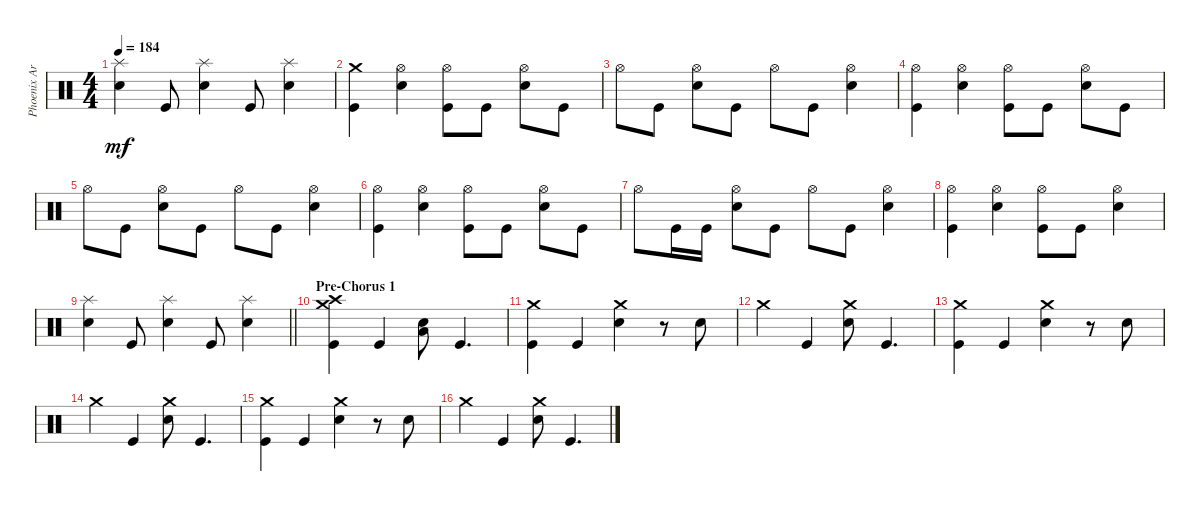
\track ("Phoenix Arn-Horn (Drums)" "Phoenix Ar") {instrument percussion}
\staff {score}
\articulation defaults
\ts (4 4)
\tempo 184
\clef neutral
\ks c
("Snare (hit) 2" "Splash (hit)").4{dy mf} "Kick (hit)".8 ("Snare (hit) 2" "Splash (hit)").4 "Kick (hit)".8 ("Snare (hit) 2" "Splash (hit)").4 |
("Kick (hit)" "Crash medium (hit)").4 ("Snare (hit) 2" "Hi-Hat (open)").4 ("Kick (hit)" "Hi-Hat (open)").8 "Kick (hit)".8 ("Snare (hit) 2" "Hi-Hat (open)").8 "Kick (hit)".8 |
"Hi-Hat (open)".8 "Kick (hit)".8 ("Snare (hit) 2" "Hi-Hat (open)").8 "Kick (hit)".8 "Hi-Hat (open)".8 "Kick (hit)".8 ("Snare (hit) 2" "Hi-Hat (open)").4 |
("Kick (hit)" "Hi-Hat (open)").4 ("Snare (hit) 2" "Hi-Hat (open)").4 ("Kick (hit)" "Hi-Hat (open)").8 "Kick (hit)".8 ("Snare (hit) 2" "Hi-Hat (open)").8 "Kick (hit)".8 |
"Hi-Hat (open)".8 "Kick (hit)".8 ("Snare (hit) 2" "Hi-Hat (open)").8 "Kick (hit)".8 "Hi-Hat (open)".8 "Kick (hit)".8 ("Snare (hit) 2" "Hi-Hat (open)").4 |
("Kick (hit)" "Hi-Hat (open)").4 ("Snare (hit) 2" "Hi-Hat (open)").4 ("Kick (hit)" "Hi-Hat (open)").8 "Kick (hit)".8 ("Snare (hit) 2" "Hi-Hat (open)").8 "Kick (hit)".8 |
"Hi-Hat (open)".8 "Kick (hit)".16 "Kick (hit)".16 ("Snare (hit) 2" "Hi-Hat (open)").8 "Kick (hit)".8 "Hi-Hat (open)".8 "Kick (hit)".8 ("Snare (hit) 2" "Hi-Hat (open)").4 |
("Kick (hit)" "Hi-Hat (open)").4 ("Snare (hit) 2" "Hi-Hat (open)").4 ("Kick (hit)" "Hi-Hat (open)").8 "Kick (hit)".8 ("Snare (hit) 2" "Hi-Hat (open)").4 |
\barLineRight lightlight
("Snare (hit) 2" "Splash (hit)").4 "Kick (hit)".8 ("Snare (hit) 2" "Splash (hit)").4 "Kick (hit)".8 ("Snare (hit) 2" "Splash (hit)").4 |
\section ("" "Pre-Chorus 1")
("Kick (hit)" "Crash medium (hit)" "Crash high (hit)").4 "Kick (hit)".4 ("Snare (hit) 2" "Low Floor Tom (hit)").8 "Kick (hit)".4{d} |
("Kick (hit)" "Crash medium (hit)").4 "Kick (hit)".4 ("Snare (hit) 2" "Crash medium (hit)").4 r.8 "Snare (hit) 2".8 |
"Crash medium (hit)".4 "Kick (hit)".4 ("Snare (hit) 2" "Crash medium (hit)").8 "Kick (hit)".4{d} |
("Kick (hit)" "Crash medium (hit)").4 "Kick (hit)".4 ("Snare (hit) 2" "Crash medium (hit)").4 r.8 "Snare (hit) 2".8 |
"Crash medium (hit)".4 "Kick (hit)".4 ("Snare (hit) 2" "Crash medium (hit)").8 "Kick (hit)".4{d} |
("Kick (hit)" "Crash medium (hit)").4 "Kick (hit)".4 ("Snare (hit) 2" "Crash medium (hit)").4 r.8 "Snare (hit) 2".8 |
"Crash medium (hit)".4 "Kick (hit)".4 ("Snare (hit) 2" "Crash medium (hit)").8 "Kick (hit)".4{d}
